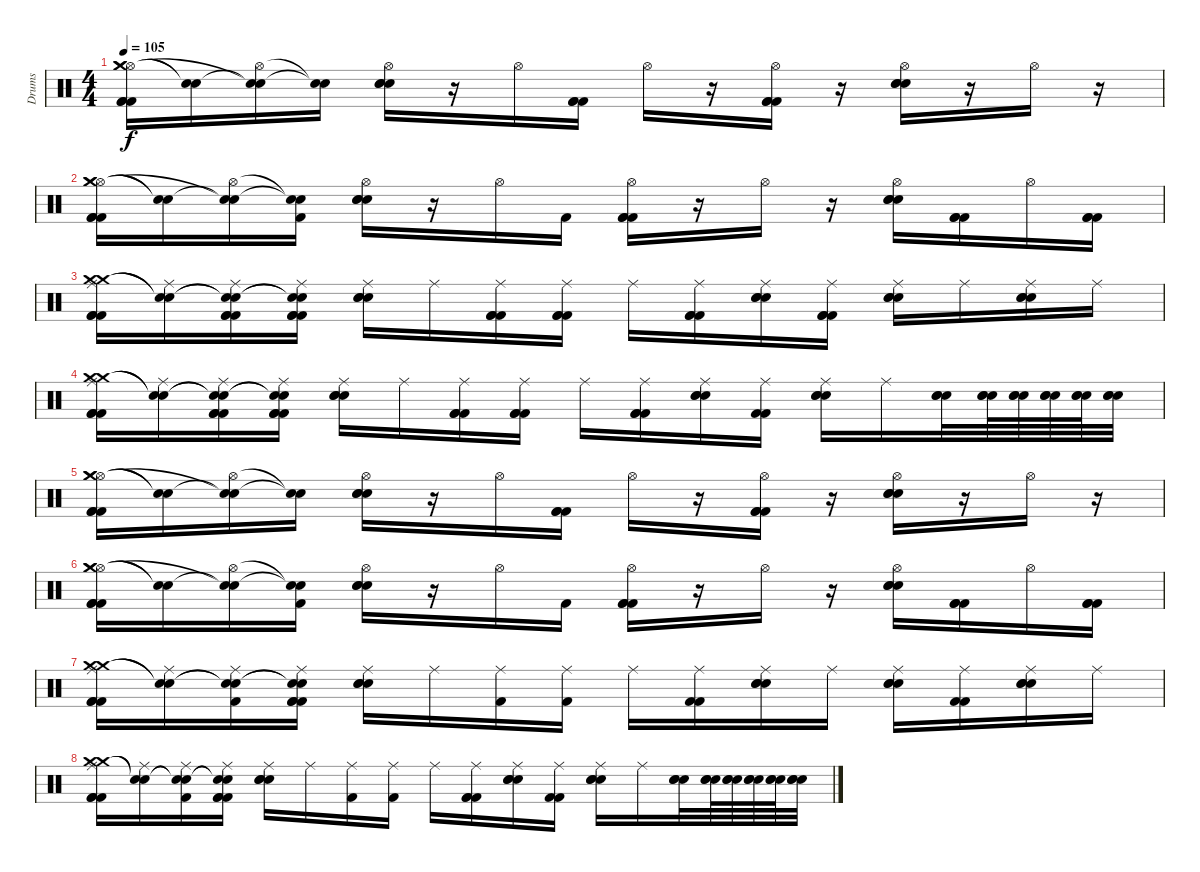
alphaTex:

\track ("Drums" "Drums") {instrument percussion}
\staff {score}
\articulation defaults
\ts (4 4)
\tempo 105
\clef neutral
\ks c
("Hi-Hat (open)" "Crash medium (hit)" "Crash medium (hit)" "Kick (hit) 2" "Kick (hit) 2" "Kick (hit) 2").16{dy f} ("Snare (hit)"{t} "Snare (hit)"{t}).16 ("Hi-Hat (open)" "Snare (hit)"{t} "Snare (hit)"{t}).16 ("Snare (hit)"{t} "Snare (hit)"{t}).16 ("Hi-Hat (open)" "Electric Snare (hit)" "Electric Snare (hit)" "Electric Snare (hit)").16 r.16 "Hi-Hat (open)".16 ("Kick (hit) 2" "Kick (hit) 2" "Kick (hit) 2").16 "Hi-Hat (open)".16 r.16 ("Hi-Hat (open)" "Kick (hit) 2" "Kick (hit) 2" "Kick (hit) 2").16 r.16 ("Hi-Hat (open)" "Electric Snare (hit)" "Electric Snare (hit)" "Electric Snare (hit)").16 r.16 "Hi-Hat (open)".16 r.16 |
("Hi-Hat (open)" "Crash medium (hit)" "Crash medium (hit)" "Kick (hit) 2" "Kick (hit) 2" "Kick (hit) 2").16 ("Snare (hit)"{t} "Snare (hit)"{t}).16 ("Hi-Hat (open)" "Snare (hit)"{t} "Snare (hit)"{t}).16 ("Snare (hit)"{t} "Snare (hit)"{t} "Kick (hit) 2").16 ("Hi-Hat (open)" "Electric Snare (hit)" "Electric Snare (hit)" "Electric Snare (hit)").16 r.16 "Hi-Hat (open)".16 "Kick (hit) 2".16 ("Hi-Hat (open)" "Kick (hit) 2" "Kick (hit) 2" "Kick (hit) 2").16 r.16 "Hi-Hat (open)".16 r.16 ("Hi-Hat (open)" "Electric Snare (hit)" "Electric Snare (hit)" "Electric Snare (hit)").16 ("Kick (hit) 2" "Kick (hit) 2" "Kick (hit) 2").16 "Hi-Hat (open)".16 ("Kick (hit) 2" "Kick (hit) 2" "Kick (hit) 2").16 |
("Ride (middle)" "Crash medium (hit)" "Crash medium (hit)" "Kick (hit) 2" "Kick (hit) 2" "Kick (hit) 2").16 ("Ride (middle)" "Snare (hit)"{t} "Snare (hit)"{t}).16 ("Ride (middle)" "Snare (hit)"{t} "Snare (hit)"{t} "Kick (hit) 2" "Kick (hit) 2" "Kick (hit) 2").16 ("Ride (middle)" "Snare (hit)"{t} "Snare (hit)"{t} "Kick (hit) 2" "Kick (hit) 2" "Kick (hit) 2").16 ("Ride (middle)" "Electric Snare (hit)" "Electric Snare (hit)" "Electric Snare (hit)").16 "Ride (middle)".16 ("Ride (middle)" "Kick (hit) 2" "Kick (hit) 2" "Kick (hit) 2").16 ("Ride (middle)" "Kick (hit) 2" "Kick (hit) 2" "Kick (hit) 2").16 "Ride (middle)".16 ("Ride (middle)" "Kick (hit) 2" "Kick (hit) 2" "Kick (hit) 2").16 ("Ride (middle)" "Electric Snare (hit)" "Electric Snare (hit)" "Electric Snare (hit)").16 ("Ride (middle)" "Kick (hit) 2" "Kick (hit) 2" "Kick (hit) 2").16 ("Ride (middle)" "Electric Snare (hit)" "Electric Snare (hit)" "Electric Snare (hit)").16 "Ride (middle)".16 ("Ride (middle)" "Electric Snare (hit)" "Electric Snare (hit)" "Electric Snare (hit)").16 "Ride (middle)".16 |
("Ride (middle)" "Crash medium (hit)" "Crash medium (hit)" "Kick (hit) 2" "Kick (hit) 2" "Kick (hit) 2").16 ("Ride (middle)" "Snare (hit)"{t} "Snare (hit)"{t}).16 ("Ride (middle)" "Snare (hit)"{t} "Snare (hit)"{t} "Kick (hit) 2" "Kick (hit) 2" "Kick (hit) 2").16 ("Ride (middle)" "Snare (hit)"{t} "Snare (hit)"{t} "Kick (hit) 2" "Kick (hit) 2" "Kick (hit) 2").16 ("Ride (middle)" "Electric Snare (hit)" "Electric Snare (hit)" "Electric Snare (hit)").16 "Ride (middle)".16 ("Ride (middle)" "Kick (hit) 2" "Kick (hit) 2" "Kick (hit) 2").16 ("Ride (middle)" "Kick (hit) 2" "Kick (hit) 2" "Kick (hit) 2").16 "Ride (middle)".16 ("Ride (middle)" "Kick (hit) 2" "Kick (hit) 2" "Kick (hit) 2").16 ("Ride (middle)" "Electric Snare (hit)" "Electric Snare (hit)" "Electric Snare (hit)").16 ("Ride (middle)" "Kick (hit) 2" "Kick (hit) 2").16 ("Ride (middle)" "Electric Snare (hit)" "Electric Snare (hit)" "Electric Snare (hit)").16 "Ride (middle)".16 ("Electric Snare (hit)" "Electric Snare (hit)" "Electric Snare (hit)").32 ("Electric Snare (hit)" "Electric Snare (hit)" "Electric Snare (hit)").64 ("Electric Snare (hit)" "Electric Snare (hit)" "Electric Snare (hit)").64 ("Electric Snare (hit)" "Electric Snare (hit)" "Electric Snare (hit)").64 ("Electric Snare (hit)" "Electric Snare (hit)" "Electric Snare (hit)").64 ("Electric Snare (hit)" "Electric Snare (hit)" "Electric Snare (hit)").32 |
("Hi-Hat (open)" "Crash medium (hit)" "Crash medium (hit)" "Kick (hit) 2" "Kick (hit) 2" "Kick (hit) 2").16 ("Snare (hit)"{t} "Snare (hit)"{t}).16 ("Hi-Hat (open)" "Snare (hit)"{t} "Snare (hit)"{t}).16 ("Snare (hit)"{t} "Snare (hit)"{t}).16 ("Hi-Hat (open)" "Electric Snare (hit)" "Electric Snare (hit)" "Electric Snare (hit)").16 r.16 "Hi-Hat (open)".16 ("Kick (hit) 2" "Kick (hit) 2" "Kick (hit) 2").16 "Hi-Hat (open)".16 r.16 ("Hi-Hat (open)" "Kick (hit) 2" "Kick (hit) 2" "Kick (hit) 2").16 r.16 ("Hi-Hat (open)" "Electric Snare (hit)" "Electric Snare (hit)" "Electric Snare (hit)").16 r.16 "Hi-Hat (open)".16 r.16 |
("Hi-Hat (open)" "Crash medium (hit)" "Crash medium (hit)" "Kick (hit) 2" "Kick (hit) 2" "Kick (hit) 2").16 ("Snare (hit)"{t} "Snare (hit)"{t}).16 ("Hi-Hat (open)" "Snare (hit)"{t} "Snare (hit)"{t}).16 ("Snare (hit)"{t} "Snare (hit)"{t} "Kick (hit) 2").16 ("Hi-Hat (open)" "Electric Snare (hit)" "Electric Snare (hit)" "Electric Snare (hit)").16 r.16 "Hi-Hat (open)".16 "Kick (hit) 2".16 ("Hi-Hat (open)" "Kick (hit) 2" "Kick (hit) 2" "Kick (hit) 2").16 r.16 "Hi-Hat (open)".16 r.16 ("Hi-Hat (open)" "Electric Snare (hit)" "Electric Snare (hit)" "Electric Snare (hit)").16 ("Kick (hit) 2" "Kick (hit) 2" "Kick (hit) 2").16 "Hi-Hat (open)".16 ("Kick (hit) 2" "Kick (hit) 2" "Kick (hit) 2").16 |
("Ride (middle)" "Crash medium (hit)" "Crash medium (hit)" "Kick (hit) 2" "Kick (hit) 2" "Kick (hit) 2").16 ("Ride (middle)" "Snare (hit)"{t} "Snare (hit)"{t}).16 ("Ride (middle)" "Snare (hit)"{t} "Snare (hit)"{t} "Kick (hit) 2").16 ("Ride (middle)" "Snare (hit)"{t} "Snare (hit)"{t} "Kick (hit) 2" "Kick (hit) 2" "Kick (hit) 2").16 ("Ride (middle)" "Electric Snare (hit)" "Electric Snare (hit)" "Electric Snare (hit)").16 "Ride (middle)".16 ("Ride (middle)" "Kick (hit) 2").16 ("Ride (middle)" "Kick (hit) 2").16 "Ride (middle)".16 ("Ride (middle)" "Kick (hit) 2" "Kick (hit) 2").16 ("Ride (middle)" "Electric Snare (hit)" "Electric Snare (hit)" "Electric Snare (hit)").16 "Ride (middle)".16 ("Ride (middle)" "Electric Snare (hit)" "Electric Snare (hit)" "Electric Snare (hit)").16 ("Ride (middle)" "Kick (hit) 2" "Kick (hit) 2").16 ("Ride (middle)" "Electric Snare (hit)" "Electric Snare (hit)" "Electric Snare (hit)").16 "Ride (middle)".16 |
("Ride (middle)" "Crash medium (hit)" "Crash medium (hit)" "Kick (hit) 2" "Kick (hit) 2" "Kick (hit) 2").16 ("Ride (middle)" "Snare (hit)"{t} "Snare (hit)"{t}).16 ("Ride (middle)" "Snare (hit)"{t} "Snare (hit)"{t} "Kick (hit) 2").16 ("Ride (middle)" "Snare (hit)"{t} "Snare (hit)"{t} "Kick (hit) 2" "Kick (hit) 2" "Kick (hit) 2").16 ("Ride (middle)" "Electric Snare (hit)" "Electric Snare (hit)" "Electric Snare (hit)").16 "Ride (middle)".16 ("Ride (middle)" "Kick (hit) 2").16 ("Ride (middle)" "Kick (hit) 2").16 "Ride (middle)".16 ("Ride (middle)" "Kick (hit) 2" "Kick (hit) 2" "Kick (hit) 2").16 ("Ride (middle)" "Electric Snare (hit)" "Electric Snare (hit)" "Electric Snare (hit)").16 ("Ride (middle)" "Kick (hit) 2" "Kick (hit) 2").16 ("Ride (middle)" "Electric Snare (hit)" "Electric Snare (hit)" "Electric Snare (hit)").16 "Ride (middle)".16 ("Electric Snare (hit)" "Electric Snare (hit)" "Electric Snare (hit)").32 ("Electric Snare (hit)" "Electric Snare (hit)" "Electric Snare (hit)").64 ("Electric Snare (hit)" "Electric Snare (hit)" "Electric Snare (hit)").64 ("Electric Snare (hit)" "Electric Snare (hit)" "Electric Snare (hit)").64 ("Electric Snare (hit)" "Electric Snare (hit)" "Electric Snare (hit)").64 ("Electric Snare (hit)" "Electric Snare (hit)" "Electric Snare (hit)").32
